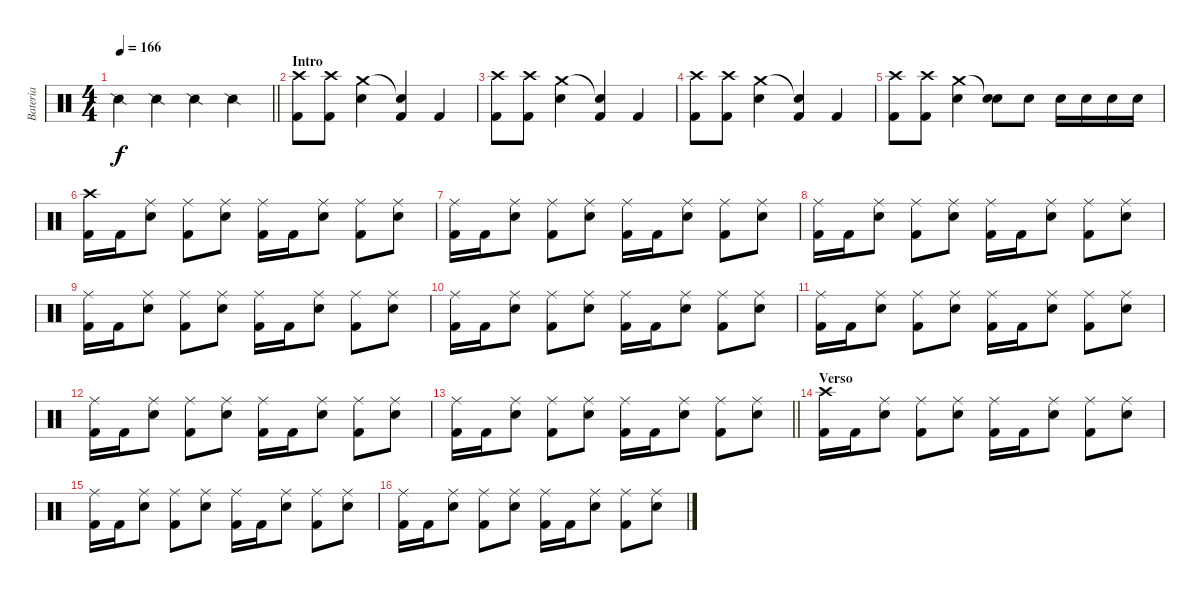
\track ("Bateria" "Bateria") {instrument percussion}
\staff {score}
\articulation defaults
\ts (4 4)
\tempo 166
\clef neutral
\barLineRight lightlight
\ks c "Snare (side stick) 2".4{dy f} "Snare (side stick) 2".4 "Snare (side stick) 2".4 "Snare (side stick) 2".4
|
\section ("" "Intro")
("Crash high (hit)" "Kick (hit) 2").8 ("Crash high (hit)" "Kick (hit) 2").8 ("Crash medium (hit)" "Electric Snare (hit)").4 ("Snare (hit)"{t} "Kick (hit) 2").4 "Kick (hit) 2".4 |
("Crash high (hit)" "Kick (hit) 2").8 ("Crash high (hit)" "Kick (hit) 2").8 ("Crash medium (hit)" "Electric Snare (hit)").4 ("Snare (hit)"{t} "Kick (hit) 2").4 "Kick (hit) 2".4 |
("Crash high (hit)" "Kick (hit) 2").8 ("Crash high (hit)" "Kick (hit) 2").8 ("Crash medium (hit)" "Electric Snare (hit)").4 ("Snare (hit)"{t} "Kick (hit) 2").4 "Kick (hit) 2".4 |
("Crash high (hit)" "Kick (hit) 2").8 ("Crash high (hit)" "Kick (hit) 2").8 ("Crash medium (hit)" "Electric Snare (hit)").4 ("Snare (hit)"{t} "Electric Snare (hit)").8 "Electric Snare (hit)".8 "Electric Snare (hit)".16 "Electric Snare (hit)".16 "Electric Snare (hit)".16 "Electric Snare (hit)".16 |
("Crash high (hit)" "Kick (hit) 2").16 "Kick (hit) 2".16 ("Ride (middle)" "Electric Snare (hit)").8 ("Ride (middle)" "Kick (hit) 2").8 ("Ride (middle)" "Electric Snare (hit)").8 ("Ride (middle)" "Kick (hit) 2").16 "Kick (hit) 2".16 ("Ride (middle)" "Electric Snare (hit)").8 ("Ride (middle)" "Kick (hit) 2").8 ("Ride (middle)" "Electric Snare (hit)").8 |
("Ride (middle)" "Kick (hit) 2").16 "Kick (hit) 2".16 ("Ride (middle)" "Electric Snare (hit)").8 ("Ride (middle)" "Kick (hit) 2").8 ("Ride (middle)" "Electric Snare (hit)").8 ("Ride (middle)" "Kick (hit) 2").16 "Kick (hit) 2".16 ("Ride (middle)" "Electric Snare (hit)").8 ("Ride (middle)" "Kick (hit) 2").8 ("Ride (middle)" "Electric Snare (hit)").8 |
("Ride (middle)" "Kick (hit) 2").16 "Kick (hit) 2".16 ("Ride (middle)" "Electric Snare (hit)").8 ("Ride (middle)" "Kick (hit) 2").8 ("Ride (middle)" "Electric Snare (hit)").8 ("Ride (middle)" "Kick (hit) 2").16 "Kick (hit) 2".16 ("Ride (middle)" "Electric Snare (hit)").8 ("Ride (middle)" "Kick (hit) 2").8 ("Ride (middle)" "Electric Snare (hit)").8 |
("Ride (middle)" "Kick (hit) 2").16 "Kick (hit) 2".16 ("Ride (middle)" "Electric Snare (hit)").8 ("Ride (middle)" "Kick (hit) 2").8 ("Ride (middle)" "Electric Snare (hit)").8 ("Ride (middle)" "Kick (hit) 2").16 "Kick (hit) 2".16 ("Ride (middle)" "Electric Snare (hit)").8 ("Ride (middle)" "Kick (hit) 2").8 ("Ride (middle)" "Electric Snare (hit)").8 |
("Ride (middle)" "Kick (hit) 2").16 "Kick (hit) 2".16 ("Ride (middle)" "Electric Snare (hit)").8 ("Ride (middle)" "Kick (hit) 2").8 ("Ride (middle)" "Electric Snare (hit)").8 ("Ride (middle)" "Kick (hit) 2").16 "Kick (hit) 2".16 ("Ride (middle)" "Electric Snare (hit)").8 ("Ride (middle)" "Kick (hit) 2").8 ("Ride (middle)" "Electric Snare (hit)").8 |
("Ride (middle)" "Kick (hit) 2").16 "Kick (hit) 2".16 ("Ride (middle)" "Electric Snare (hit)").8 ("Ride (middle)" "Kick (hit) 2").8 ("Ride (middle)" "Electric Snare (hit)").8 ("Ride (middle)" "Kick (hit) 2").16 "Kick (hit) 2".16 ("Ride (middle)" "Electric Snare (hit)").8 ("Ride (middle)" "Kick (hit) 2").8 ("Ride (middle)" "Electric Snare (hit)").8 |
("Ride (middle)" "Kick (hit) 2").16 "Kick (hit) 2".16 ("Ride (middle)" "Electric Snare (hit)").8 ("Ride (middle)" "Kick (hit) 2").8 ("Ride (middle)" "Electric Snare (hit)").8 ("Ride (middle)" "Kick (hit) 2").16 "Kick (hit) 2".16 ("Ride (middle)" "Electric Snare (hit)").8 ("Ride (middle)" "Kick (hit) 2").8 ("Ride (middle)" "Electric Snare (hit)").8 |
\barLineRight lightlight
("Ride (middle)" "Kick (hit) 2").16 "Kick (hit) 2".16 ("Ride (middle)" "Electric Snare (hit)").8 ("Ride (middle)" "Kick (hit) 2").8 ("Ride (middle)" "Electric Snare (hit)").8 ("Ride (middle)" "Kick (hit) 2").16 "Kick (hit) 2".16 ("Ride (middle)" "Electric Snare (hit)").8 ("Ride (middle)" "Kick (hit) 2").8 ("Ride (middle)" "Electric Snare (hit)").8 |
\section ("" "Verso")
("Crash high (hit)" "Kick (hit) 2").16 "Kick (hit) 2".16 ("Ride (middle)" "Electric Snare (hit)").8 ("Ride (middle)" "Kick (hit) 2").8 ("Ride (middle)" "Electric Snare (hit)").8 ("Ride (middle)" "Kick (hit) 2").16 "Kick (hit) 2".16 ("Ride (middle)" "Electric Snare (hit)").8 ("Ride (middle)" "Kick (hit) 2").8 ("Ride (middle)" "Electric Snare (hit)").8 |
("Ride (middle)" "Kick (hit) 2").16 "Kick (hit) 2".16 ("Ride (middle)" "Electric Snare (hit)").8 ("Ride (middle)" "Kick (hit) 2").8 ("Ride (middle)" "Electric Snare (hit)").8 ("Ride (middle)" "Kick (hit) 2").16 "Kick (hit) 2".16 ("Ride (middle)" "Electric Snare (hit)").8 ("Ride (middle)" "Kick (hit) 2").8 ("Ride (middle)" "Electric Snare (hit)").8 |
("Ride (middle)" "Kick (hit) 2").16 "Kick (hit) 2".16 ("Ride (middle)" "Electric Snare (hit)").8 ("Ride (middle)" "Kick (hit) 2").8 ("Ride (middle)" "Electric Snare (hit)").8 ("Ride (middle)" "Kick (hit) 2").16 "Kick (hit) 2".16 ("Ride (middle)" "Electric Snare (hit)").8 ("Ride (middle)" "Kick (hit) 2").8 ("Ride (middle)" "Electric Snare (hit)").8
